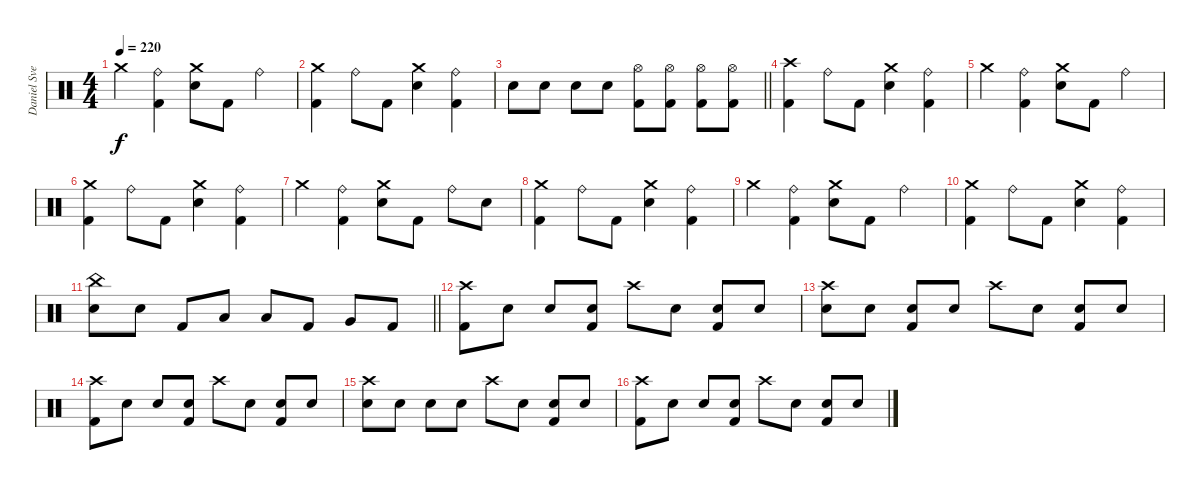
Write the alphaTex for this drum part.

\track ("Daniel Svensson" "Daniel Sve") {instrument percussion}
\staff {score}
\articulation defaults
\ts (4 4)
\tempo 220
\clef neutral
\ks c "Crash medium (hit)".4{dy f}
("Ride (bell)" "Kick (hit) 2").4 ("Crash medium (hit)" "Electric Snare (hit)").8 "Kick (hit) 2".8 "Ride (bell)".4 |
("Crash medium (hit)" "Kick (hit) 2").4 "Ride (bell)".8 "Kick (hit) 2".8 ("Crash medium (hit)" "Electric Snare (hit)").4 ("Ride (bell)" "Kick (hit) 2").4 |
\barLineRight lightlight "Electric Snare (hit)".8 "Electric Snare (hit)".8 "Electric Snare (hit)".8 "Electric Snare (hit)".8
("Hi-Hat (open)" "Kick (hit) 2").8 ("Hi-Hat (open)" "Kick (hit) 2").8 ("Hi-Hat (open)" "Kick (hit) 2").8 ("Hi-Hat (open)" "Kick (hit) 2").8 |
("Crash high (hit)" "Kick (hit) 2").4 "Ride (bell)".8 "Kick (hit) 2".8 ("Crash medium (hit)" "Electric Snare (hit)").4 ("Ride (bell)" "Kick (hit) 2").4 |
"Crash medium (hit)".4 ("Ride (bell)" "Kick (hit) 2").4 ("Crash medium (hit)" "Electric Snare (hit)").8 "Kick (hit) 2".8 "Ride (bell)".4 |
("Crash medium (hit)" "Kick (hit) 2").4 "Ride (bell)".8 "Kick (hit) 2".8 ("Crash medium (hit)" "Electric Snare (hit)").4 ("Ride (bell)" "Kick (hit) 2").4 |
"Crash medium (hit)".4 ("Ride (bell)" "Kick (hit) 2").4 ("Crash medium (hit)" "Electric Snare (hit)").8 "Kick (hit) 2".8 "Ride (bell)".8 "Electric Snare (hit)".8 |
("Crash medium (hit)" "Kick (hit) 2").4 "Ride (bell)".8 "Kick (hit) 2".8 ("Crash medium (hit)" "Electric Snare (hit)").4 ("Ride (bell)" "Kick (hit) 2").4 |
"Crash medium (hit)".4 ("Ride (bell)" "Kick (hit) 2").4 ("Crash medium (hit)" "Electric Snare (hit)").8 "Kick (hit) 2".8 "Ride (bell)".4 |
("Crash medium (hit)" "Kick (hit) 2").4 "Ride (bell)".8 "Kick (hit) 2".8 ("Crash medium (hit)" "Electric Snare (hit)").4 ("Ride (bell)" "Kick (hit) 2").4 |
\barLineRight lightlight
("China (hit)" "Electric Snare (hit)").8 "Electric Snare (hit)".8 "Kick (hit) 2".8 "Low Tom (hit)".8 "Low Tom (hit)".8 "Kick (hit) 2".8 "Very Low Tom (hit)".8 "Kick (hit) 2".8 |
\section ("" "")
("Crash high (hit)" "Kick (hit) 2").8 "Snare (hit)".8 "Snare (hit)".8 ("Snare (hit)" "Kick (hit) 2").8 "Crash high (hit)".8 "Snare (hit)".8 ("Snare (hit)" "Kick (hit) 2").8 "Snare (hit)".8 |
("Crash high (hit)" "Electric Snare (hit)").8 "Snare (hit)".8 ("Snare (hit)" "Kick (hit) 2").8 "Snare (hit)".8 "Crash high (hit)".8 "Snare (hit)".8 ("Snare (hit)" "Kick (hit) 2").8 "Snare (hit)".8 |
("Crash high (hit)" "Kick (hit) 2").8 "Snare (hit)".8 "Snare (hit)".8 ("Snare (hit)" "Kick (hit) 2").8 "Crash high (hit)".8 "Snare (hit)".8 ("Snare (hit)" "Kick (hit) 2").8 "Snare (hit)".8 |
("Crash high (hit)" "Electric Snare (hit)").8 "Snare (hit)".8 "Snare (hit)".8 "Snare (hit)".8 "Crash high (hit)".8 "Snare (hit)".8 ("Snare (hit)" "Kick (hit) 2").8 "Snare (hit)".8 |
("Crash high (hit)" "Kick (hit) 2").8 "Snare (hit)".8 "Snare (hit)".8 ("Snare (hit)" "Kick (hit) 2").8 "Crash high (hit)".8 "Snare (hit)".8 ("Snare (hit)" "Kick (hit) 2").8 "Snare (hit)".8
